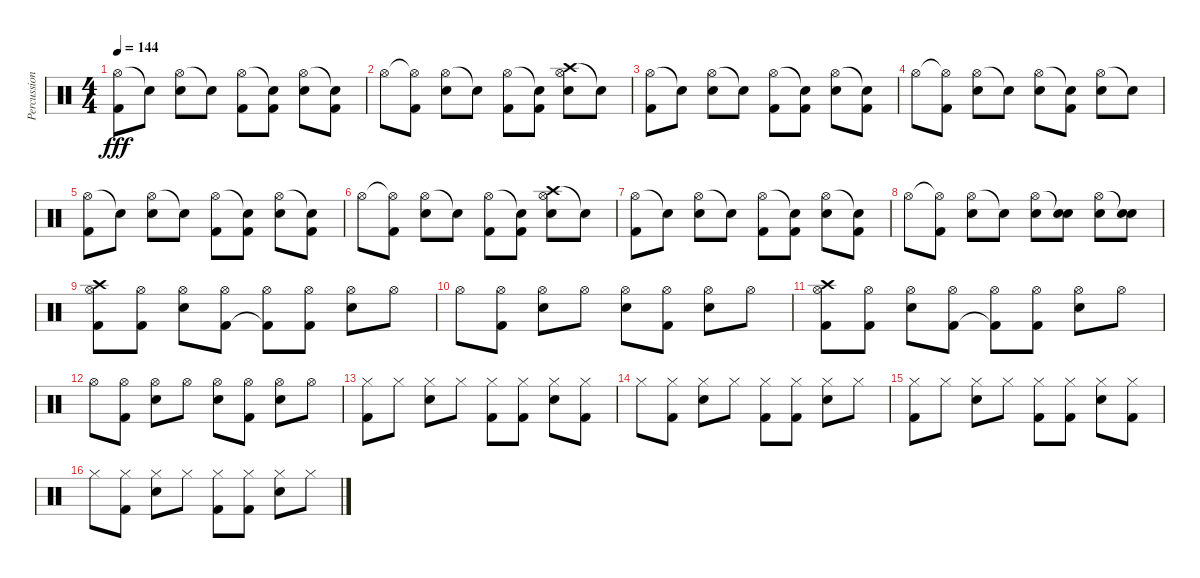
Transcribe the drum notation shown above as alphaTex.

\track ("Percussion" "Percussion") {instrument percussion}
\staff {score}
\articulation defaults
\ts (4 4)
\tempo 144
\clef neutral
\ks c
("Hi-Hat (open)" "Kick (hit) 2").8{dy fff} "Snare (hit)"{t}.8 ("Hi-Hat (open)" "Electric Snare (hit)").8 "Snare (hit)"{t}.8 ("Hi-Hat (open)" "Kick (hit) 2").8 ("Snare (hit)"{t} "Kick (hit) 2").8 ("Hi-Hat (open)" "Electric Snare (hit)").8 ("Snare (hit)"{t} "Kick (hit) 2").8 |
"Hi-Hat (open)".8 ("Hi-Hat (open)"{t} "Kick (hit) 2").8 ("Hi-Hat (open)" "Electric Snare (hit)").8 "Snare (hit)"{t}.8 ("Hi-Hat (open)" "Kick (hit) 2").8 ("Snare (hit)"{t} "Kick (hit) 2").8 ("Crash high (hit)" "Hi-Hat (open)" "Electric Snare (hit)").8 "Snare (hit)"{t}.8 |
("Hi-Hat (open)" "Kick (hit) 2").8 "Snare (hit)"{t}.8 ("Hi-Hat (open)" "Electric Snare (hit)").8 "Snare (hit)"{t}.8 ("Hi-Hat (open)" "Kick (hit) 2").8 ("Snare (hit)"{t} "Kick (hit) 2").8 ("Hi-Hat (open)" "Electric Snare (hit)").8 ("Snare (hit)"{t} "Kick (hit) 2").8 |
"Hi-Hat (open)".8 ("Hi-Hat (open)"{t} "Kick (hit) 2").8 ("Hi-Hat (open)" "Electric Snare (hit)").8 "Snare (hit)"{t}.8 ("Hi-Hat (open)" "Electric Snare (hit)").8 ("Snare (hit)"{t} "Kick (hit) 2").8 ("Hi-Hat (open)" "Electric Snare (hit)").8 "Snare (hit)"{t}.8 |
("Hi-Hat (open)" "Kick (hit) 2").8 "Snare (hit)"{t}.8 ("Hi-Hat (open)" "Electric Snare (hit)").8 "Snare (hit)"{t}.8 ("Hi-Hat (open)" "Kick (hit) 2").8 ("Snare (hit)"{t} "Kick (hit) 2").8 ("Hi-Hat (open)" "Electric Snare (hit)").8 ("Snare (hit)"{t} "Kick (hit) 2").8 |
"Hi-Hat (open)".8 ("Hi-Hat (open)"{t} "Kick (hit) 2").8 ("Hi-Hat (open)" "Electric Snare (hit)").8 "Snare (hit)"{t}.8 ("Hi-Hat (open)" "Kick (hit) 2").8 ("Snare (hit)"{t} "Kick (hit) 2").8 ("Crash high (hit)" "Hi-Hat (open)" "Electric Snare (hit)").8 "Snare (hit)"{t}.8 |
("Hi-Hat (open)" "Kick (hit) 2").8 "Snare (hit)"{t}.8 ("Hi-Hat (open)" "Electric Snare (hit)").8 "Snare (hit)"{t}.8 ("Hi-Hat (open)" "Kick (hit) 2").8 ("Snare (hit)"{t} "Kick (hit) 2").8 ("Hi-Hat (open)" "Electric Snare (hit)").8 ("Snare (hit)"{t} "Kick (hit) 2").8 |
"Hi-Hat (open)".8 ("Hi-Hat (open)"{t} "Kick (hit) 2").8 ("Hi-Hat (open)" "Electric Snare (hit)").8 "Snare (hit)"{t}.8 ("Hi-Hat (open)" "Electric Snare (hit)").8 ("Snare (hit)"{t} "Electric Snare (hit)").8 ("Hi-Hat (open)" "Electric Snare (hit)").8 ("Snare (hit)"{t} "Electric Snare (hit)").8 |
("Hi-Hat (open)" "Crash high (hit)" "Kick (hit) 2").8 ("Hi-Hat (open)" "Kick (hit) 2").8 ("Hi-Hat (open)" "Electric Snare (hit)").8 ("Hi-Hat (open)" "Kick (hit) 2").8 ("Hi-Hat (open)" "Kick (hit) 2"{t}).8 ("Hi-Hat (open)" "Kick (hit) 2").8 ("Hi-Hat (open)" "Electric Snare (hit)").8 "Hi-Hat (open)".8 |
"Hi-Hat (open)".8 ("Hi-Hat (open)" "Kick (hit) 2").8 ("Hi-Hat (open)" "Electric Snare (hit)").8 "Hi-Hat (open)".8 ("Hi-Hat (open)" "Electric Snare (hit)").8 ("Hi-Hat (open)" "Kick (hit) 2").8 ("Hi-Hat (open)" "Electric Snare (hit)").8 "Hi-Hat (open)".8 |
("Hi-Hat (open)" "Crash high (hit)" "Kick (hit) 2").8 ("Hi-Hat (open)" "Kick (hit) 2").8 ("Hi-Hat (open)" "Electric Snare (hit)").8 ("Hi-Hat (open)" "Kick (hit) 2").8 ("Hi-Hat (open)" "Kick (hit) 2"{t}).8 ("Hi-Hat (open)" "Kick (hit) 2").8 ("Hi-Hat (open)" "Electric Snare (hit)").8 "Hi-Hat (open)".8 |
"Hi-Hat (open)".8 ("Hi-Hat (open)" "Kick (hit) 2").8 ("Hi-Hat (open)" "Electric Snare (hit)").8 "Hi-Hat (open)".8 ("Hi-Hat (open)" "Electric Snare (hit)").8 ("Hi-Hat (open)" "Kick (hit) 2").8 ("Hi-Hat (open)" "Electric Snare (hit)").8 "Hi-Hat (open)".8 |
("Hi-Hat (closed)" "Kick (hit) 2").8 "Hi-Hat (closed)".8 ("Hi-Hat (closed)" "Electric Snare (hit)").8 "Hi-Hat (closed)".8 ("Hi-Hat (closed)" "Kick (hit) 2").8 ("Hi-Hat (closed)" "Kick (hit) 2").8 ("Hi-Hat (closed)" "Electric Snare (hit)").8 ("Hi-Hat (closed)" "Kick (hit) 2").8 |
"Hi-Hat (closed)".8 ("Hi-Hat (closed)" "Kick (hit) 2").8 ("Hi-Hat (closed)" "Electric Snare (hit)").8 "Hi-Hat (closed)".8 ("Hi-Hat (closed)" "Kick (hit) 2").8 ("Hi-Hat (closed)" "Kick (hit) 2").8 ("Hi-Hat (closed)" "Electric Snare (hit)").8 "Hi-Hat (closed)".8 |
("Hi-Hat (closed)" "Kick (hit) 2").8 "Hi-Hat (closed)".8 ("Hi-Hat (closed)" "Electric Snare (hit)").8 "Hi-Hat (closed)".8 ("Hi-Hat (closed)" "Kick (hit) 2").8 ("Hi-Hat (closed)" "Kick (hit) 2").8 ("Hi-Hat (closed)" "Electric Snare (hit)").8 ("Hi-Hat (closed)" "Kick (hit) 2").8 |
"Hi-Hat (closed)".8 ("Hi-Hat (closed)" "Kick (hit) 2").8 ("Hi-Hat (closed)" "Electric Snare (hit)").8 "Hi-Hat (closed)".8 ("Hi-Hat (closed)" "Kick (hit) 2").8 ("Hi-Hat (closed)" "Kick (hit) 2").8 ("Hi-Hat (closed)" "Electric Snare (hit)").8 "Hi-Hat (closed)".8
